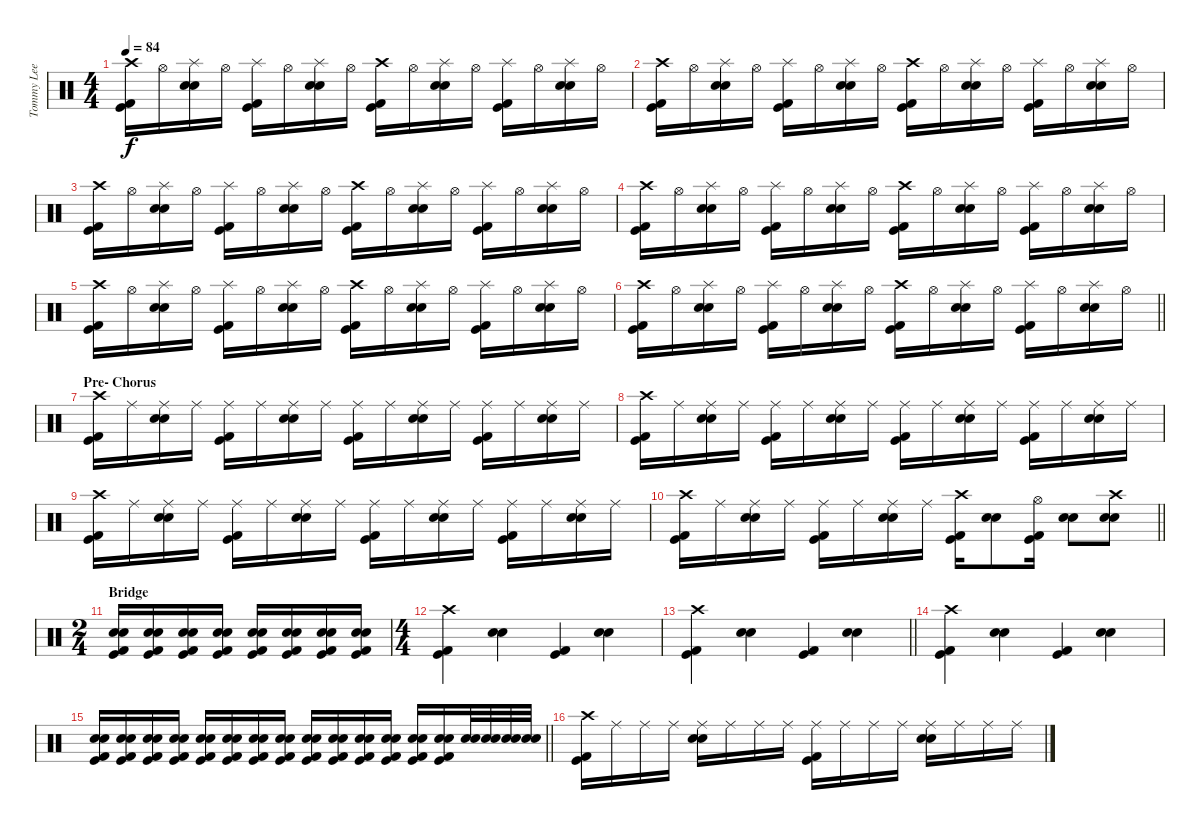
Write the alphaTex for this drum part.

\track ("Tommy Lee" "Tommy Lee") {instrument percussion}
\staff {score}
\articulation defaults
\ts (4 4)
\tempo 84
\clef neutral
\ks c
("Crash high (hit)" "Kick (hit) 2" "Kick (hit)").16{dy f} "Hi-Hat (open)".16 ("Splash (hit)" "Electric Snare (hit)" "Snare (hit) 2").16 "Hi-Hat (open)".16 ("Splash (hit)" "Kick (hit) 2" "Kick (hit)").16 "Hi-Hat (open)".16 ("Splash (hit)" "Electric Snare (hit)" "Snare (hit) 2").16 "Hi-Hat (open)".16 ("Crash high (hit)" "Kick (hit) 2" "Kick (hit)").16 "Hi-Hat (open)".16 ("Splash (hit)" "Electric Snare (hit)" "Snare (hit) 2").16 "Hi-Hat (open)".16 ("Splash (hit)" "Kick (hit) 2" "Kick (hit)").16 "Hi-Hat (open)".16 ("Splash (hit)" "Electric Snare (hit)" "Snare (hit) 2").16 "Hi-Hat (open)".16 |
("Crash high (hit)" "Kick (hit) 2" "Kick (hit)").16 "Hi-Hat (open)".16 ("Splash (hit)" "Electric Snare (hit)" "Snare (hit) 2").16 "Hi-Hat (open)".16 ("Splash (hit)" "Kick (hit) 2" "Kick (hit)").16 "Hi-Hat (open)".16 ("Splash (hit)" "Electric Snare (hit)" "Snare (hit) 2").16 "Hi-Hat (open)".16 ("Crash high (hit)" "Kick (hit) 2" "Kick (hit)").16 "Hi-Hat (open)".16 ("Splash (hit)" "Electric Snare (hit)" "Snare (hit) 2").16 "Hi-Hat (open)".16 ("Splash (hit)" "Kick (hit) 2" "Kick (hit)").16 "Hi-Hat (open)".16 ("Splash (hit)" "Electric Snare (hit)" "Snare (hit) 2").16 "Hi-Hat (open)".16 |
("Crash high (hit)" "Kick (hit) 2" "Kick (hit)").16 "Hi-Hat (open)".16 ("Splash (hit)" "Electric Snare (hit)" "Snare (hit) 2").16 "Hi-Hat (open)".16 ("Splash (hit)" "Kick (hit) 2" "Kick (hit)").16 "Hi-Hat (open)".16 ("Splash (hit)" "Electric Snare (hit)" "Snare (hit) 2").16 "Hi-Hat (open)".16 ("Crash high (hit)" "Kick (hit) 2" "Kick (hit)").16 "Hi-Hat (open)".16 ("Splash (hit)" "Electric Snare (hit)" "Snare (hit) 2").16 "Hi-Hat (open)".16 ("Splash (hit)" "Kick (hit) 2" "Kick (hit)").16 "Hi-Hat (open)".16 ("Splash (hit)" "Electric Snare (hit)" "Snare (hit) 2").16 "Hi-Hat (open)".16 |
("Crash high (hit)" "Kick (hit) 2" "Kick (hit)").16 "Hi-Hat (open)".16 ("Splash (hit)" "Electric Snare (hit)" "Snare (hit) 2").16 "Hi-Hat (open)".16 ("Splash (hit)" "Kick (hit) 2" "Kick (hit)").16 "Hi-Hat (open)".16 ("Splash (hit)" "Electric Snare (hit)" "Snare (hit) 2").16 "Hi-Hat (open)".16 ("Crash high (hit)" "Kick (hit) 2" "Kick (hit)").16 "Hi-Hat (open)".16 ("Splash (hit)" "Electric Snare (hit)" "Snare (hit) 2").16 "Hi-Hat (open)".16 ("Splash (hit)" "Kick (hit) 2" "Kick (hit)").16 "Hi-Hat (open)".16 ("Splash (hit)" "Electric Snare (hit)" "Snare (hit) 2").16 "Hi-Hat (open)".16 |
("Crash high (hit)" "Kick (hit) 2" "Kick (hit)").16 "Hi-Hat (open)".16 ("Splash (hit)" "Electric Snare (hit)" "Snare (hit) 2").16 "Hi-Hat (open)".16 ("Splash (hit)" "Kick (hit) 2" "Kick (hit)").16 "Hi-Hat (open)".16 ("Splash (hit)" "Electric Snare (hit)" "Snare (hit) 2").16 "Hi-Hat (open)".16 ("Crash high (hit)" "Kick (hit) 2" "Kick (hit)").16 "Hi-Hat (open)".16 ("Splash (hit)" "Electric Snare (hit)" "Snare (hit) 2").16 "Hi-Hat (open)".16 ("Splash (hit)" "Kick (hit) 2" "Kick (hit)").16 "Hi-Hat (open)".16 ("Splash (hit)" "Electric Snare (hit)" "Snare (hit) 2").16 "Hi-Hat (open)".16 |
\barLineRight lightlight
("Crash high (hit)" "Kick (hit) 2" "Kick (hit)").16 "Hi-Hat (open)".16 ("Splash (hit)" "Electric Snare (hit)" "Snare (hit) 2").16 "Hi-Hat (open)".16 ("Splash (hit)" "Kick (hit) 2" "Kick (hit)").16 "Hi-Hat (open)".16 ("Splash (hit)" "Electric Snare (hit)" "Snare (hit) 2").16 "Hi-Hat (open)".16 ("Crash high (hit)" "Kick (hit) 2" "Kick (hit)").16 "Hi-Hat (open)".16 ("Splash (hit)" "Electric Snare (hit)" "Snare (hit) 2").16 "Hi-Hat (open)".16 ("Splash (hit)" "Kick (hit) 2" "Kick (hit)").16 "Hi-Hat (open)".16 ("Splash (hit)" "Electric Snare (hit)" "Snare (hit) 2").16 "Hi-Hat (open)".16 |
\section ("" "Pre- Chorus")
("Crash high (hit)" "Kick (hit) 2" "Kick (hit)").16 "Ride (middle)".16 ("Ride (middle)" "Electric Snare (hit)" "Snare (hit) 2").16 "Ride (middle)".16 ("Ride (middle)" "Kick (hit) 2" "Kick (hit)").16 "Ride (middle)".16 ("Ride (middle)" "Electric Snare (hit)" "Snare (hit) 2").16 "Ride (middle)".16 ("Ride (middle)" "Kick (hit) 2" "Kick (hit)").16 "Ride (middle)".16 ("Ride (middle)" "Electric Snare (hit)" "Snare (hit) 2").16 "Ride (middle)".16 ("Ride (middle)" "Kick (hit) 2" "Kick (hit)").16 "Ride (middle)".16 ("Ride (middle)" "Electric Snare (hit)" "Snare (hit) 2").16 "Ride (middle)".16 |
("Crash high (hit)" "Kick (hit) 2" "Kick (hit)").16 "Ride (middle)".16 ("Ride (middle)" "Electric Snare (hit)" "Snare (hit) 2").16 "Ride (middle)".16 ("Ride (middle)" "Kick (hit) 2" "Kick (hit)").16 "Ride (middle)".16 ("Ride (middle)" "Electric Snare (hit)" "Snare (hit) 2").16 "Ride (middle)".16 ("Ride (middle)" "Kick (hit) 2" "Kick (hit)").16 "Ride (middle)".16 ("Ride (middle)" "Electric Snare (hit)" "Snare (hit) 2").16 "Ride (middle)".16 ("Ride (middle)" "Kick (hit) 2" "Kick (hit)").16 "Ride (middle)".16 ("Ride (middle)" "Electric Snare (hit)" "Snare (hit) 2").16 "Ride (middle)".16 |
("Crash high (hit)" "Kick (hit) 2" "Kick (hit)").16 "Ride (middle)".16 ("Ride (middle)" "Electric Snare (hit)" "Snare (hit) 2").16 "Ride (middle)".16 ("Ride (middle)" "Kick (hit) 2" "Kick (hit)").16 "Ride (middle)".16 ("Ride (middle)" "Electric Snare (hit)" "Snare (hit) 2").16 "Ride (middle)".16 ("Ride (middle)" "Kick (hit) 2" "Kick (hit)").16 "Ride (middle)".16 ("Ride (middle)" "Electric Snare (hit)" "Snare (hit) 2").16 "Ride (middle)".16 ("Ride (middle)" "Kick (hit) 2" "Kick (hit)").16 "Ride (middle)".16 ("Ride (middle)" "Electric Snare (hit)" "Snare (hit) 2").16 "Ride (middle)".16 |
\barLineRight lightlight
("Crash high (hit)" "Kick (hit) 2" "Kick (hit)").16 "Ride (middle)".16 ("Ride (middle)" "Electric Snare (hit)" "Snare (hit) 2").16 "Ride (middle)".16 ("Ride (middle)" "Kick (hit) 2" "Kick (hit)").16 "Ride (middle)".16 ("Ride (middle)" "Electric Snare (hit)" "Snare (hit) 2").16 "Ride (middle)".16 ("Crash high (hit)" "Kick (hit) 2" "Kick (hit)").16 ("Electric Snare (hit)" "Snare (hit) 2").8 ("Hi-Hat (open)" "Kick (hit) 2" "Kick (hit)").16 ("Electric Snare (hit)" "Snare (hit) 2").8 ("Crash high (hit)" "Electric Snare (hit)" "Snare (hit) 2").8 |
\ts (2 4)
\section ("" "Bridge")
("Electric Snare (hit)" "Snare (hit) 2" "Kick (hit) 2" "Kick (hit)").16 ("Electric Snare (hit)" "Snare (hit) 2" "Kick (hit) 2" "Kick (hit)").16 ("Electric Snare (hit)" "Snare (hit) 2" "Kick (hit) 2" "Kick (hit)").16 ("Electric Snare (hit)" "Snare (hit) 2" "Kick (hit) 2" "Kick (hit)").16 ("Electric Snare (hit)" "Snare (hit) 2" "Kick (hit) 2" "Kick (hit)").16 ("Electric Snare (hit)" "Snare (hit) 2" "Kick (hit) 2" "Kick (hit)").16 ("Electric Snare (hit)" "Snare (hit) 2" "Kick (hit) 2" "Kick (hit)").16 ("Electric Snare (hit)" "Snare (hit) 2" "Kick (hit) 2" "Kick (hit)").16 |
\ts (4 4)
("Crash high (hit)" "Kick (hit) 2" "Kick (hit)").4 ("Electric Snare (hit)" "Snare (hit) 2").4 ("Kick (hit) 2" "Kick (hit)").4 ("Electric Snare (hit)" "Snare (hit) 2").4 |
\barLineRight lightlight
("Crash high (hit)" "Kick (hit) 2" "Kick (hit)").4 ("Electric Snare (hit)" "Snare (hit) 2").4 ("Kick (hit) 2" "Kick (hit)").4 ("Electric Snare (hit)" "Snare (hit) 2").4 |
("Crash high (hit)" "Kick (hit) 2" "Kick (hit)").4 ("Electric Snare (hit)" "Snare (hit) 2").4 ("Kick (hit) 2" "Kick (hit)").4 ("Electric Snare (hit)" "Snare (hit) 2").4 |
\barLineRight lightlight
("Electric Snare (hit)" "Snare (hit) 2" "Kick (hit) 2" "Kick (hit)").16 ("Electric Snare (hit)" "Snare (hit) 2" "Kick (hit) 2" "Kick (hit)").16 ("Electric Snare (hit)" "Snare (hit) 2" "Kick (hit) 2" "Kick (hit)").16 ("Electric Snare (hit)" "Snare (hit) 2" "Kick (hit) 2" "Kick (hit)").16 ("Electric Snare (hit)" "Snare (hit) 2" "Kick (hit) 2" "Kick (hit)").16 ("Electric Snare (hit)" "Snare (hit) 2" "Kick (hit) 2" "Kick (hit)").16 ("Electric Snare (hit)" "Snare (hit) 2" "Kick (hit) 2" "Kick (hit)").16 ("Electric Snare (hit)" "Snare (hit) 2" "Kick (hit) 2" "Kick (hit)").16 ("Electric Snare (hit)" "Snare (hit) 2" "Kick (hit) 2" "Kick (hit)").16 ("Electric Snare (hit)" "Snare (hit) 2" "Kick (hit) 2" "Kick (hit)").16 ("Electric Snare (hit)" "Snare (hit) 2" "Kick (hit) 2" "Kick (hit)").16 ("Electric Snare (hit)" "Snare (hit) 2" "Kick (hit) 2" "Kick (hit)").16 ("Electric Snare (hit)" "Snare (hit) 2" "Kick (hit) 2" "Kick (hit)").16 ("Electric Snare (hit)" "Snare (hit) 2" "Kick (hit) 2" "Kick (hit)").16 ("Electric Snare (hit)" "Snare (hit) 2").32 ("Electric Snare (hit)" "Snare (hit) 2").32 ("Electric Snare (hit)" "Snare (hit) 2").32 ("Electric Snare (hit)" "Snare (hit) 2").32 |
("Crash high (hit)" "Kick (hit) 2" "Kick (hit)").16 "Ride (middle)".16 "Ride (middle)".16 "Ride (middle)".16 ("Ride (middle)" "Electric Snare (hit)" "Snare (hit) 2").16 "Ride (middle)".16 "Ride (middle)".16 "Ride (middle)".16 ("Ride (middle)" "Kick (hit) 2" "Kick (hit)").16 "Ride (middle)".16 "Ride (middle)".16 "Ride (middle)".16 ("Ride (middle)" "Electric Snare (hit)" "Snare (hit) 2").16 "Ride (middle)".16 "Ride (middle)".16 "Ride (middle)".16
